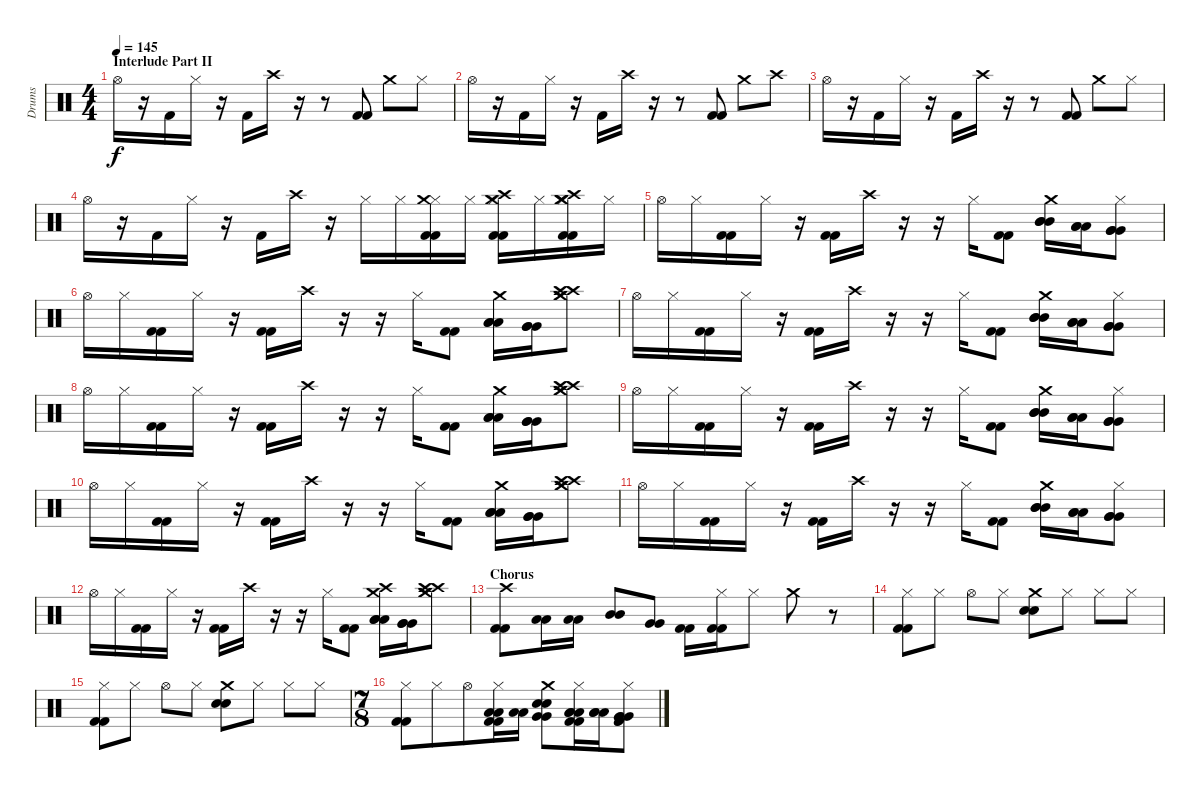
\track ("Drums" "Drums") {instrument percussion}
\staff {score}
\articulation defaults
\ts (4 4)
\section ("" "Interlude Part II")
\tempo 145
\clef neutral
\ks c "Hi-Hat (open)".16{dy f volume 11}
r.16 "Kick (hit) 2".16 "Hi-Hat (closed)".16 r.16 "Kick (hit) 2".16 "Crash high (hit)".16 r.16 r.8 ("Kick (hit) 2" "Kick (hit) 2").8 "Crash medium (hit)".8 "Hi-Hat (closed)".8 |
"Hi-Hat (open)".16 r.16 "Kick (hit) 2".16 "Hi-Hat (closed)".16 r.16 "Kick (hit) 2".16 "Crash high (hit)".16 r.16 r.8 ("Kick (hit) 2" "Kick (hit) 2").8 "Crash medium (hit)".8 "Crash high (hit)".8 |
"Hi-Hat (open)".16 r.16 "Kick (hit) 2".16 "Hi-Hat (closed)".16 r.16 "Kick (hit) 2".16 "Crash high (hit)".16 r.16 r.8 ("Kick (hit) 2" "Kick (hit) 2").8 "Crash medium (hit)".8 "Hi-Hat (closed)".8 |
"Hi-Hat (open)".16 r.16 "Kick (hit) 2".16 "Hi-Hat (closed)".16 r.16 "Kick (hit) 2".16 "Crash high (hit)".16 r.16 "Hi-Hat (closed)".16 "Hi-Hat (closed)".16 ("Hi-Hat (closed)" "Crash medium (hit)" "Kick (hit) 2" "Kick (hit) 2").16 "Hi-Hat (closed)".16 ("Hi-Hat (closed)" "Crash high (hit)" "Crash medium (hit)" "Kick (hit) 2" "Kick (hit) 2").16 "Hi-Hat (closed)".16 ("Hi-Hat (closed)" "Crash high (hit)" "Crash medium (hit)" "Crash medium (hit)" "Kick (hit) 2" "Kick (hit) 2").16 "Hi-Hat (closed)".16 |
"Hi-Hat (open)".16 "Hi-Hat (closed)".16 ("Kick (hit) 2" "Kick (hit) 2").16 "Hi-Hat (closed)".16 r.16 ("Kick (hit) 2" "Kick (hit) 2").16 "Crash high (hit)".16 r.16 r.16 "Hi-Hat (closed)".16 ("Kick (hit) 2" "Kick (hit) 2").8 ("Crash medium (hit)" "Mid Tom (hit)" "Mid Tom (hit)" "Mid Tom (hit)").16 ("Low Tom (hit)" "Low Tom (hit)" "Low Tom (hit)").16 ("Hi-Hat (closed)" "Very Low Tom (hit)" "Very Low Tom (hit)" "Very Low Tom (hit)").8 |
"Hi-Hat (open)".16 "Hi-Hat (closed)".16 ("Kick (hit) 2" "Kick (hit) 2").16 "Hi-Hat (closed)".16 r.16 ("Kick (hit) 2" "Kick (hit) 2").16 "Crash high (hit)".16 r.16 r.16 "Hi-Hat (closed)".16 ("Kick (hit) 2" "Kick (hit) 2").8 ("Crash medium (hit)" "Low Tom (hit)" "Low Tom (hit)" "Low Tom (hit)").16 ("Very Low Tom (hit)" "Very Low Tom (hit)" "Very Low Tom (hit)").16 ("Crash high (hit)" "Crash high (hit)" "Crash medium (hit)" "Crash medium (hit)").8 |
"Hi-Hat (open)".16 "Hi-Hat (closed)".16 ("Kick (hit) 2" "Kick (hit) 2").16 "Hi-Hat (closed)".16 r.16 ("Kick (hit) 2" "Kick (hit) 2").16 "Crash high (hit)".16 r.16 r.16 "Hi-Hat (closed)".16 ("Kick (hit) 2" "Kick (hit) 2").8 ("Crash medium (hit)" "Mid Tom (hit)" "Mid Tom (hit)" "Mid Tom (hit)").16 ("Low Tom (hit)" "Low Tom (hit)" "Low Tom (hit)").16 ("Hi-Hat (closed)" "Very Low Tom (hit)" "Very Low Tom (hit)" "Very Low Tom (hit)").8 |
"Hi-Hat (open)".16 "Hi-Hat (closed)".16 ("Kick (hit) 2" "Kick (hit) 2").16 "Hi-Hat (closed)".16 r.16 ("Kick (hit) 2" "Kick (hit) 2").16 "Crash high (hit)".16 r.16 r.16 "Hi-Hat (closed)".16 ("Kick (hit) 2" "Kick (hit) 2").8 ("Crash medium (hit)" "Low Tom (hit)" "Low Tom (hit)" "Low Tom (hit)").16 ("Very Low Tom (hit)" "Very Low Tom (hit)" "Very Low Tom (hit)").16 ("Crash high (hit)" "Crash high (hit)" "Crash medium (hit)" "Crash medium (hit)").8 |
"Hi-Hat (open)".16 "Hi-Hat (closed)".16 ("Kick (hit) 2" "Kick (hit) 2").16 "Hi-Hat (closed)".16 r.16 ("Kick (hit) 2" "Kick (hit) 2").16 "Crash high (hit)".16 r.16 r.16 "Hi-Hat (closed)".16 ("Kick (hit) 2" "Kick (hit) 2").8 ("Crash medium (hit)" "Mid Tom (hit)" "Mid Tom (hit)" "Mid Tom (hit)").16 ("Low Tom (hit)" "Low Tom (hit)" "Low Tom (hit)").16 ("Hi-Hat (closed)" "Very Low Tom (hit)" "Very Low Tom (hit)" "Very Low Tom (hit)").8 |
"Hi-Hat (open)".16 "Hi-Hat (closed)".16 ("Kick (hit) 2" "Kick (hit) 2").16 "Hi-Hat (closed)".16 r.16 ("Kick (hit) 2" "Kick (hit) 2").16 "Crash high (hit)".16 r.16 r.16 "Hi-Hat (closed)".16 ("Kick (hit) 2" "Kick (hit) 2").8 ("Crash medium (hit)" "Low Tom (hit)" "Low Tom (hit)" "Low Tom (hit)").16 ("Very Low Tom (hit)" "Very Low Tom (hit)" "Very Low Tom (hit)").16 ("Crash high (hit)" "Crash high (hit)" "Crash medium (hit)" "Crash medium (hit)").8 |
"Hi-Hat (open)".16 "Hi-Hat (closed)".16 ("Kick (hit) 2" "Kick (hit) 2").16 "Hi-Hat (closed)".16 r.16 ("Kick (hit) 2" "Kick (hit) 2").16 "Crash high (hit)".16 r.16 r.16 "Hi-Hat (closed)".16 ("Kick (hit) 2" "Kick (hit) 2").8 ("Crash medium (hit)" "Mid Tom (hit)" "Mid Tom (hit)" "Mid Tom (hit)").16 ("Low Tom (hit)" "Low Tom (hit)" "Low Tom (hit)").16 ("Hi-Hat (closed)" "Very Low Tom (hit)" "Very Low Tom (hit)" "Very Low Tom (hit)").8 |
"Hi-Hat (open)".16 "Hi-Hat (closed)".16 ("Kick (hit) 2" "Kick (hit) 2").16 "Hi-Hat (closed)".16 r.16 ("Kick (hit) 2" "Kick (hit) 2").16 "Crash high (hit)".16 r.16 r.16 "Hi-Hat (closed)".16 ("Kick (hit) 2" "Kick (hit) 2").8 ("Crash high (hit)" "Crash medium (hit)" "Low Tom (hit)" "Low Tom (hit)" "Low Tom (hit)").16 ("Very Low Tom (hit)" "Very Low Tom (hit)" "Very Low Tom (hit)").16 ("Crash high (hit)" "Crash high (hit)" "Crash medium (hit)" "Crash medium (hit)").8 |
\section ("" "Chorus")
("Crash high (hit)" "Kick (hit) 2" "Kick (hit) 2").8{volume 12} ("Low Tom (hit)" "Low Tom (hit)").16 ("Low Tom (hit)" "Low Tom (hit)").16 ("Mid Tom (hit)" "Mid Tom (hit)").8 ("Very Low Tom (hit)" "Very Low Tom (hit)").8 ("Kick (hit) 2" "Kick (hit) 2").16 ("Hi-Hat (closed)" "Kick (hit) 2" "Kick (hit) 2").16 "Hi-Hat (closed)".8 "Crash medium (hit)".8 r.8 |
("Hi-Hat (closed)" "Kick (hit) 2" "Kick (hit) 2").8 "Hi-Hat (closed)".8 "Hi-Hat (open)".8 "Hi-Hat (closed)".8 ("Crash medium (hit)" "Snare (hit) 2" "Snare (hit) 2").8 "Hi-Hat (closed)".8 "Hi-Hat (closed)".8 "Hi-Hat (closed)".8 |
("Hi-Hat (closed)" "Kick (hit) 2" "Kick (hit) 2").8{volume 13} "Hi-Hat (closed)".8 "Hi-Hat (open)".8 "Hi-Hat (closed)".8 ("Crash medium (hit)" "Snare (hit) 2" "Snare (hit) 2").8 "Hi-Hat (closed)".8 "Hi-Hat (closed)".8 "Hi-Hat (closed)".8 |
\ts (7 8)
("Hi-Hat (closed)" "Kick (hit) 2" "Kick (hit) 2").8 "Hi-Hat (closed)".8 "Hi-Hat (open)".8 ("Low Tom (hit)" "Low Tom (hit)" "Hi-Hat (closed)" "Kick (hit) 2" "Kick (hit) 2").16 ("Low Tom (hit)" "Low Tom (hit)").16 ("Very Low Tom (hit)" "Very Low Tom (hit)" "Crash medium (hit)" "Snare (hit) 2" "Snare (hit) 2").8 ("Kick (hit) 2" "Kick (hit) 2" "Hi-Hat (closed)" "Low Tom (hit)" "Low Tom (hit)" "Low Tom (hit)").16 ("Low Tom (hit)" "Low Tom (hit)" "Low Tom (hit)").16 ("Kick (hit) 2" "Kick (hit) 2" "Hi-Hat (closed)" "Very Low Tom (hit)" "Very Low Tom (hit)" "Very Low Tom (hit)").8
